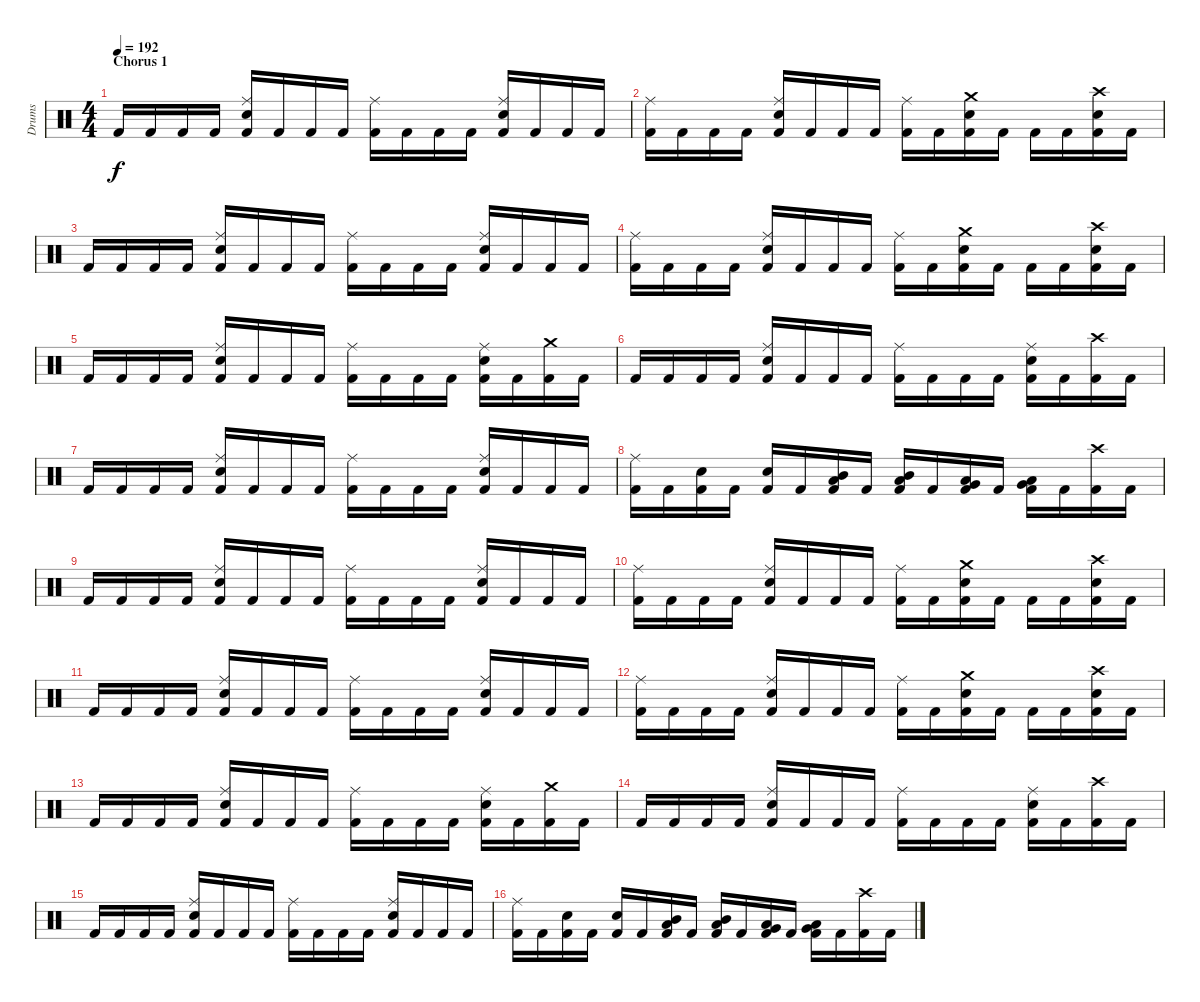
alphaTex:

\track ("Drums" "Drums") {instrument percussion}
\staff {score}
\articulation defaults
\ts (4 4)
\section ("" "Chorus 1")
\tempo 192
\clef neutral
\ks c "Kick (hit) 2".16{dy f} "Kick (hit) 2".16 "Kick (hit) 2".16 "Kick (hit) 2".16
("Ride (middle)" "Snare (hit) 2" "Kick (hit) 2").16 "Kick (hit) 2".16 "Kick (hit) 2".16 "Kick (hit) 2".16 ("Ride (middle)" "Kick (hit) 2").16 "Kick (hit) 2".16 "Kick (hit) 2".16 "Kick (hit) 2".16 ("Ride (middle)" "Snare (hit) 2" "Kick (hit) 2").16 "Kick (hit) 2".16 "Kick (hit) 2".16 "Kick (hit) 2".16 |
("Ride (middle)" "Kick (hit) 2").16 "Kick (hit) 2".16 "Kick (hit) 2".16 "Kick (hit) 2".16 ("Ride (middle)" "Snare (hit) 2" "Kick (hit) 2").16 "Kick (hit) 2".16 "Kick (hit) 2".16 "Kick (hit) 2".16 ("Ride (middle)" "Kick (hit) 2").16 "Kick (hit) 2".16 ("Crash medium (hit)" "Snare (hit) 2" "Kick (hit) 2").16 "Kick (hit) 2".16 "Kick (hit) 2".16 "Kick (hit) 2".16 ("Crash high (hit)" "Snare (hit) 2" "Kick (hit) 2").16 "Kick (hit) 2".16 |
"Kick (hit) 2".16 "Kick (hit) 2".16 "Kick (hit) 2".16 "Kick (hit) 2".16 ("Ride (middle)" "Snare (hit) 2" "Kick (hit) 2").16 "Kick (hit) 2".16 "Kick (hit) 2".16 "Kick (hit) 2".16 ("Ride (middle)" "Kick (hit) 2").16 "Kick (hit) 2".16 "Kick (hit) 2".16 "Kick (hit) 2".16 ("Ride (middle)" "Snare (hit) 2" "Kick (hit) 2").16 "Kick (hit) 2".16 "Kick (hit) 2".16 "Kick (hit) 2".16 |
("Ride (middle)" "Kick (hit) 2").16 "Kick (hit) 2".16 "Kick (hit) 2".16 "Kick (hit) 2".16 ("Ride (middle)" "Snare (hit) 2" "Kick (hit) 2").16 "Kick (hit) 2".16 "Kick (hit) 2".16 "Kick (hit) 2".16 ("Ride (middle)" "Kick (hit) 2").16 "Kick (hit) 2".16 ("Crash medium (hit)" "Snare (hit) 2" "Kick (hit) 2").16 "Kick (hit) 2".16 "Kick (hit) 2".16 "Kick (hit) 2".16 ("Crash high (hit)" "Snare (hit) 2" "Kick (hit) 2").16 "Kick (hit) 2".16 |
"Kick (hit) 2".16 "Kick (hit) 2".16 "Kick (hit) 2".16 "Kick (hit) 2".16 ("Ride (middle)" "Snare (hit) 2" "Kick (hit) 2").16 "Kick (hit) 2".16 "Kick (hit) 2".16 "Kick (hit) 2".16 ("Ride (middle)" "Kick (hit) 2").16 "Kick (hit) 2".16 "Kick (hit) 2".16 "Kick (hit) 2".16 ("Ride (middle)" "Snare (hit) 2" "Kick (hit) 2").16 "Kick (hit) 2".16 ("Crash medium (hit)" "Kick (hit) 2").16 "Kick (hit) 2".16 |
"Kick (hit) 2".16 "Kick (hit) 2".16 "Kick (hit) 2".16 "Kick (hit) 2".16 ("Ride (middle)" "Snare (hit) 2" "Kick (hit) 2").16 "Kick (hit) 2".16 "Kick (hit) 2".16 "Kick (hit) 2".16 ("Ride (middle)" "Kick (hit) 2").16 "Kick (hit) 2".16 "Kick (hit) 2".16 "Kick (hit) 2".16 ("Ride (middle)" "Snare (hit) 2" "Kick (hit) 2").16 "Kick (hit) 2".16 ("Crash high (hit)" "Kick (hit) 2").16 "Kick (hit) 2".16 |
"Kick (hit) 2".16 "Kick (hit) 2".16 "Kick (hit) 2".16 "Kick (hit) 2".16 ("Ride (middle)" "Snare (hit) 2" "Kick (hit) 2").16 "Kick (hit) 2".16 "Kick (hit) 2".16 "Kick (hit) 2".16 ("Ride (middle)" "Kick (hit) 2").16 "Kick (hit) 2".16 "Kick (hit) 2".16 "Kick (hit) 2".16 ("Ride (middle)" "Snare (hit) 2" "Kick (hit) 2").16 "Kick (hit) 2".16 "Kick (hit) 2".16 "Kick (hit) 2".16 |
("Ride (middle)" "Kick (hit) 2").16 "Kick (hit) 2".16 ("Snare (hit) 2" "Kick (hit) 2").16 "Kick (hit) 2".16 ("Snare (hit) 2" "Kick (hit) 2").16 "Kick (hit) 2".16 ("Mid Tom (hit)" "Low Tom (hit)" "Kick (hit) 2").16 "Kick (hit) 2".16 ("Mid Tom (hit)" "Low Tom (hit)" "Kick (hit) 2").16 "Kick (hit) 2".16 ("Low Tom (hit)" "Very Low Tom (hit)" "Kick (hit) 2").16 "Kick (hit) 2".16 ("Low Tom (hit)" "Very Low Tom (hit)" "Kick (hit) 2").16 "Kick (hit) 2".16 ("Crash high (hit)" "Kick (hit) 2").16 "Kick (hit) 2".16 |
"Kick (hit) 2".16 "Kick (hit) 2".16 "Kick (hit) 2".16 "Kick (hit) 2".16 ("Ride (middle)" "Snare (hit) 2" "Kick (hit) 2").16 "Kick (hit) 2".16 "Kick (hit) 2".16 "Kick (hit) 2".16 ("Ride (middle)" "Kick (hit) 2").16 "Kick (hit) 2".16 "Kick (hit) 2".16 "Kick (hit) 2".16 ("Ride (middle)" "Snare (hit) 2" "Kick (hit) 2").16 "Kick (hit) 2".16 "Kick (hit) 2".16 "Kick (hit) 2".16 |
("Ride (middle)" "Kick (hit) 2").16 "Kick (hit) 2".16 "Kick (hit) 2".16 "Kick (hit) 2".16 ("Ride (middle)" "Snare (hit) 2" "Kick (hit) 2").16 "Kick (hit) 2".16 "Kick (hit) 2".16 "Kick (hit) 2".16 ("Ride (middle)" "Kick (hit) 2").16 "Kick (hit) 2".16 ("Crash medium (hit)" "Snare (hit) 2" "Kick (hit) 2").16 "Kick (hit) 2".16 "Kick (hit) 2".16 "Kick (hit) 2".16 ("Crash high (hit)" "Snare (hit) 2" "Kick (hit) 2").16 "Kick (hit) 2".16 |
"Kick (hit) 2".16 "Kick (hit) 2".16 "Kick (hit) 2".16 "Kick (hit) 2".16 ("Ride (middle)" "Snare (hit) 2" "Kick (hit) 2").16 "Kick (hit) 2".16 "Kick (hit) 2".16 "Kick (hit) 2".16 ("Ride (middle)" "Kick (hit) 2").16 "Kick (hit) 2".16 "Kick (hit) 2".16 "Kick (hit) 2".16 ("Ride (middle)" "Snare (hit) 2" "Kick (hit) 2").16 "Kick (hit) 2".16 "Kick (hit) 2".16 "Kick (hit) 2".16 |
("Ride (middle)" "Kick (hit) 2").16 "Kick (hit) 2".16 "Kick (hit) 2".16 "Kick (hit) 2".16 ("Ride (middle)" "Snare (hit) 2" "Kick (hit) 2").16 "Kick (hit) 2".16 "Kick (hit) 2".16 "Kick (hit) 2".16 ("Ride (middle)" "Kick (hit) 2").16 "Kick (hit) 2".16 ("Crash medium (hit)" "Snare (hit) 2" "Kick (hit) 2").16 "Kick (hit) 2".16 "Kick (hit) 2".16 "Kick (hit) 2".16 ("Crash high (hit)" "Snare (hit) 2" "Kick (hit) 2").16 "Kick (hit) 2".16 |
"Kick (hit) 2".16 "Kick (hit) 2".16 "Kick (hit) 2".16 "Kick (hit) 2".16 ("Ride (middle)" "Snare (hit) 2" "Kick (hit) 2").16 "Kick (hit) 2".16 "Kick (hit) 2".16 "Kick (hit) 2".16 ("Ride (middle)" "Kick (hit) 2").16 "Kick (hit) 2".16 "Kick (hit) 2".16 "Kick (hit) 2".16 ("Ride (middle)" "Snare (hit) 2" "Kick (hit) 2").16 "Kick (hit) 2".16 ("Crash medium (hit)" "Kick (hit) 2").16 "Kick (hit) 2".16 |
"Kick (hit) 2".16 "Kick (hit) 2".16 "Kick (hit) 2".16 "Kick (hit) 2".16 ("Ride (middle)" "Snare (hit) 2" "Kick (hit) 2").16 "Kick (hit) 2".16 "Kick (hit) 2".16 "Kick (hit) 2".16 ("Ride (middle)" "Kick (hit) 2").16 "Kick (hit) 2".16 "Kick (hit) 2".16 "Kick (hit) 2".16 ("Ride (middle)" "Snare (hit) 2" "Kick (hit) 2").16 "Kick (hit) 2".16 ("Crash high (hit)" "Kick (hit) 2").16 "Kick (hit) 2".16 |
"Kick (hit) 2".16 "Kick (hit) 2".16 "Kick (hit) 2".16 "Kick (hit) 2".16 ("Ride (middle)" "Snare (hit) 2" "Kick (hit) 2").16 "Kick (hit) 2".16 "Kick (hit) 2".16 "Kick (hit) 2".16 ("Ride (middle)" "Kick (hit) 2").16 "Kick (hit) 2".16 "Kick (hit) 2".16 "Kick (hit) 2".16 ("Ride (middle)" "Snare (hit) 2" "Kick (hit) 2").16 "Kick (hit) 2".16 "Kick (hit) 2".16 "Kick (hit) 2".16 |
("Ride (middle)" "Kick (hit) 2").16 "Kick (hit) 2".16 ("Snare (hit) 2" "Kick (hit) 2").16 "Kick (hit) 2".16 ("Snare (hit) 2" "Kick (hit) 2").16 "Kick (hit) 2".16 ("Mid Tom (hit)" "Low Tom (hit)" "Kick (hit) 2").16 "Kick (hit) 2".16 ("Mid Tom (hit)" "Low Tom (hit)" "Kick (hit) 2").16 "Kick (hit) 2".16 ("Low Tom (hit)" "Very Low Tom (hit)" "Kick (hit) 2").16 "Kick (hit) 2".16 ("Low Tom (hit)" "Very Low Tom (hit)" "Kick (hit) 2").16 "Kick (hit) 2".16 ("Crash high (hit)" "Kick (hit) 2").16 "Kick (hit) 2".16
